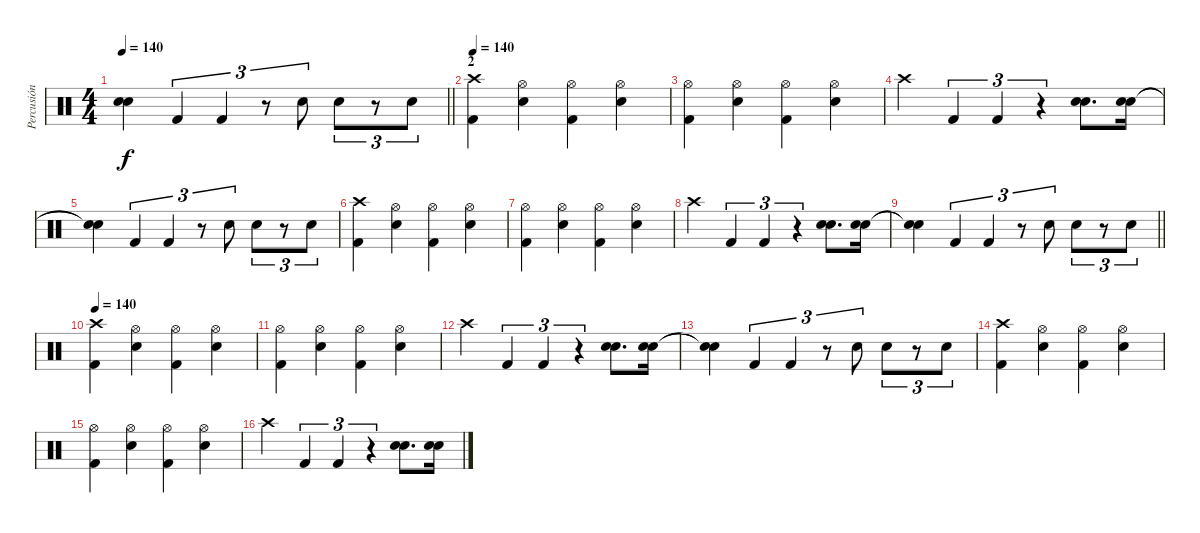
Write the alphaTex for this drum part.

\track ("Percusión" "Percusión") {instrument percussion}
\staff {score}
\articulation defaults
\ts (4 4)
\tempo 140
\clef neutral
\barLineRight lightlight
\ks c
("Snare (hit)"{t} "Snare (hit)"{t}).4{dy f} "Kick (hit) 2".4{tu (3 2)} "Kick (hit) 2".4{tu (3 2)} r.8{tu (3 2)} "Snare (hit) 2".8{tu (3 2)} "Snare (hit) 2".8{tu (3 2)} r.8{tu (3 2)} "Snare (hit) 2".8{tu (3 2)} |
\section ("" "2")
\tempo 140
("Crash high (hit)" "Kick (hit) 2").4 ("Hi-Hat (open)" "Electric Snare (hit)").4 ("Hi-Hat (open)" "Kick (hit) 2").4 ("Hi-Hat (open)" "Electric Snare (hit)").4 |
("Hi-Hat (open)" "Kick (hit) 2").4 ("Hi-Hat (open)" "Electric Snare (hit)").4 ("Hi-Hat (open)" "Kick (hit) 2").4 ("Hi-Hat (open)" "Electric Snare (hit)").4 |
"Crash high (hit)".4 "Kick (hit) 2".4{tu (3 2)} "Kick (hit) 2".4{tu (3 2)} r.4{tu (3 2)} ("Electric Snare (hit)" "Snare (hit) 2").8{d} ("Electric Snare (hit)" "Snare (hit) 2").16 |
("Snare (hit)"{t} "Snare (hit)"{t}).4 "Kick (hit) 2".4{tu (3 2)} "Kick (hit) 2".4{tu (3 2)} r.8{tu (3 2)} "Snare (hit) 2".8{tu (3 2)} "Snare (hit) 2".8{tu (3 2)} r.8{tu (3 2)} "Snare (hit) 2".8{tu (3 2)} |
("Crash high (hit)" "Kick (hit) 2").4 ("Hi-Hat (open)" "Electric Snare (hit)").4 ("Hi-Hat (open)" "Kick (hit) 2").4 ("Hi-Hat (open)" "Electric Snare (hit)").4 |
("Hi-Hat (open)" "Kick (hit) 2").4 ("Hi-Hat (open)" "Electric Snare (hit)").4 ("Hi-Hat (open)" "Kick (hit) 2").4 ("Hi-Hat (open)" "Electric Snare (hit)").4 |
"Crash high (hit)".4 "Kick (hit) 2".4{tu (3 2)} "Kick (hit) 2".4{tu (3 2)} r.4{tu (3 2)} ("Electric Snare (hit)" "Snare (hit) 2").8{d} ("Electric Snare (hit)" "Snare (hit) 2").16 |
\barLineRight lightlight
("Snare (hit)"{t} "Snare (hit)"{t}).4 "Kick (hit) 2".4{tu (3 2)} "Kick (hit) 2".4{tu (3 2)} r.8{tu (3 2)} "Snare (hit) 2".8{tu (3 2)} "Snare (hit) 2".8{tu (3 2)} r.8{tu (3 2)} "Snare (hit) 2".8{tu (3 2)} |
\tempo 140
("Crash high (hit)" "Kick (hit) 2").4 ("Hi-Hat (open)" "Electric Snare (hit)").4 ("Hi-Hat (open)" "Kick (hit) 2").4 ("Hi-Hat (open)" "Electric Snare (hit)").4 |
("Hi-Hat (open)" "Kick (hit) 2").4 ("Hi-Hat (open)" "Electric Snare (hit)").4 ("Hi-Hat (open)" "Kick (hit) 2").4 ("Hi-Hat (open)" "Electric Snare (hit)").4 |
"Crash high (hit)".4 "Kick (hit) 2".4{tu (3 2)} "Kick (hit) 2".4{tu (3 2)} r.4{tu (3 2)} ("Electric Snare (hit)" "Snare (hit) 2").8{d} ("Electric Snare (hit)" "Snare (hit) 2").16 |
("Snare (hit)"{t} "Snare (hit)"{t}).4 "Kick (hit) 2".4{tu (3 2)} "Kick (hit) 2".4{tu (3 2)} r.8{tu (3 2)} "Snare (hit) 2".8{tu (3 2)} "Snare (hit) 2".8{tu (3 2)} r.8{tu (3 2)} "Snare (hit) 2".8{tu (3 2)} |
("Crash high (hit)" "Kick (hit) 2").4 ("Hi-Hat (open)" "Electric Snare (hit)").4 ("Hi-Hat (open)" "Kick (hit) 2").4 ("Hi-Hat (open)" "Electric Snare (hit)").4 |
("Hi-Hat (open)" "Kick (hit) 2").4 ("Hi-Hat (open)" "Electric Snare (hit)").4 ("Hi-Hat (open)" "Kick (hit) 2").4 ("Hi-Hat (open)" "Electric Snare (hit)").4 |
"Crash high (hit)".4 "Kick (hit) 2".4{tu (3 2)} "Kick (hit) 2".4{tu (3 2)} r.4{tu (3 2)} ("Electric Snare (hit)" "Snare (hit) 2").8{d} ("Electric Snare (hit)" "Snare (hit) 2").16
